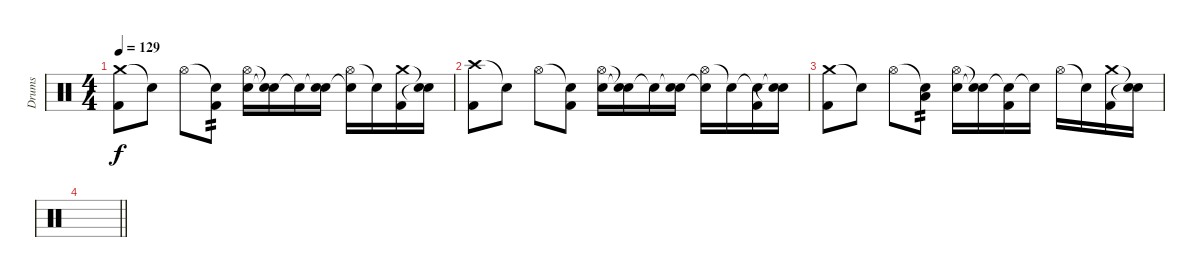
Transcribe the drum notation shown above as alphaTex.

\track ("Drums" "Drums") {instrument percussion}
\staff {score}
\articulation defaults
\ts (4 4)
\tempo 129
\clef neutral
\ks c
("Crash medium (hit)" "Kick (hit) 2").8{dy f} "Snare (hit)"{t}.8 "Hi-Hat (open)".8 ("Snare (hit)"{t} "Kick (hit) 2").8{tp 2} ("Hi-Hat (open)" "Electric Snare (hit)").16 ("Snare (hit)"{t} "Snare (hit)"{t}).16 "Snare (hit)"{t}.16 ("Snare (hit)"{t} "Electric Snare (hit)").16 ("Hi-Hat (open)" "Snare (hit)"{t}).16 "Snare (hit)"{t}.16 ("Crash medium (hit)" "Kick (hit) 2").16 ("Snare (hit)"{t} "Snare (hit)"{t}).16 |
("Crash high (hit)" "Kick (hit) 2").8 "Snare (hit)"{t}.8 "Hi-Hat (open)".8 ("Snare (hit)"{t} "Kick (hit) 2").8 ("Hi-Hat (open)" "Electric Snare (hit)").16 ("Snare (hit)"{t} "Snare (hit)"{t}).16 "Snare (hit)"{t}.16 ("Snare (hit)"{t} "Electric Snare (hit)").16 ("Hi-Hat (open)" "Snare (hit)"{t}).16 "Snare (hit)"{t}.16 ("Snare (hit)"{t} "Kick (hit) 2").16 ("Snare (hit)"{t} "Snare (hit)"{t}).16 |
("Crash medium (hit)" "Kick (hit) 2").8 "Snare (hit)"{t}.8 "Hi-Hat (open)".8 ("Snare (hit)"{t} "Low Tom (hit)").8{tp 2} ("Hi-Hat (open)" "Electric Snare (hit)").16 ("Snare (hit)"{t} "Snare (hit)"{t}).16 ("Snare (hit)"{t} "Kick (hit) 2").16 "Snare (hit)"{t}.16 "Hi-Hat (open)".16 "Snare (hit)"{t}.16 ("Crash medium (hit)" "Kick (hit) 2").16 ("Snare (hit)"{t} "Snare (hit)"{t}).16 |
\barLineRight lightlight
